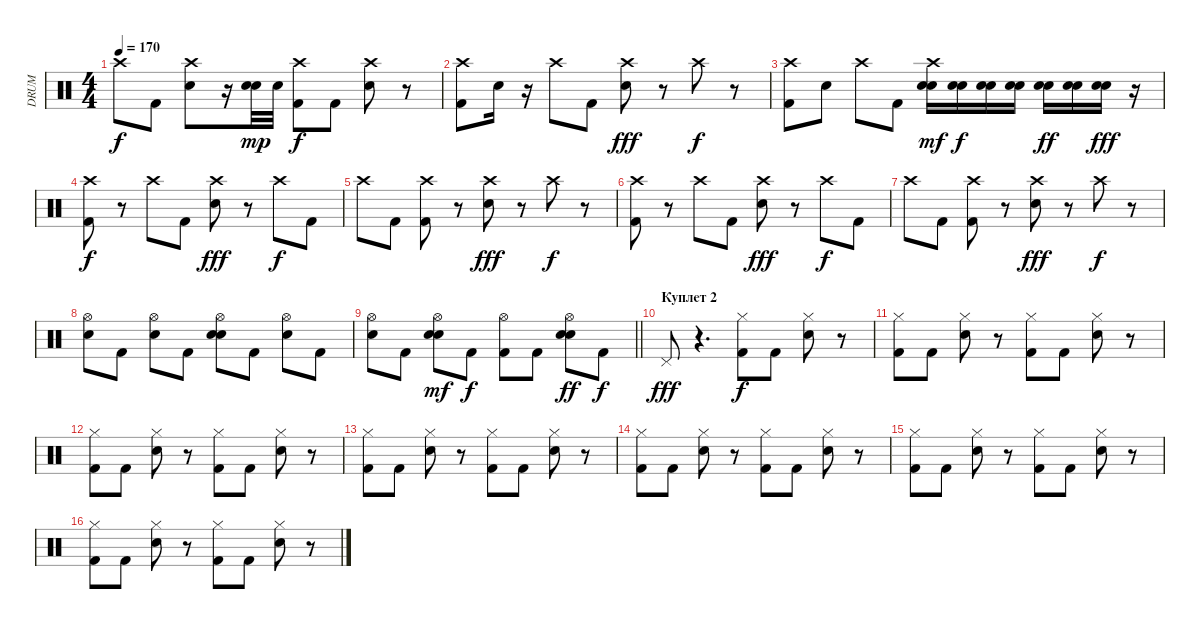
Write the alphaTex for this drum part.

\track ("DRUM" "DRUM") {instrument percussion}
\staff {score}
\articulation defaults
\ts (4 4)
\tempo 170
\clef neutral
\ks c "Crash high (hit)".8{dy f} "Kick (hit) 2".8
("Snare (hit) 2" "Crash high (hit)").8 r.16 ("Snare (hit) 2" "Snare (hit) 2").32{dy mp} "Snare (hit) 2".32 ("Kick (hit) 2" "Crash high (hit)").8{dy f} "Kick (hit) 2".8 ("Snare (hit) 2" "Crash high (hit)").8 r.8 |
("Crash high (hit)" "Kick (hit) 2").8 "Electric Snare (hit)".16 r.16 "Crash high (hit)".8 "Kick (hit) 2".8 ("Snare (hit) 2" "Crash high (hit)").8{dy fff} r.8 "Crash high (hit)".8{dy f} r.8 |
("Kick (hit) 2" "Crash high (hit)").8 "Snare (hit) 2".8 "Crash high (hit)".8 "Kick (hit) 2".8 ("Snare (hit) 2" "Electric Snare (hit)" "Crash high (hit)").16{dy mf} ("Snare (hit) 2" "Electric Snare (hit)").16{dy f} ("Snare (hit) 2" "Electric Snare (hit)").16 ("Snare (hit) 2" "Electric Snare (hit)").16 ("Snare (hit) 2" "Electric Snare (hit)").16{dy ff} ("Snare (hit) 2" "Electric Snare (hit)").16 ("Snare (hit) 2" "Electric Snare (hit)").16{dy fff} r.16 |
("Crash high (hit)" "Kick (hit) 2").8{dy f} r.8 "Crash high (hit)".8 "Kick (hit) 2".8 ("Crash high (hit)" "Snare (hit) 2").8{dy fff} r.8 "Crash high (hit)".8{dy f} "Kick (hit) 2".8 |
"Crash high (hit)".8 "Kick (hit) 2".8 ("Crash high (hit)" "Kick (hit) 2").8 r.8 ("Crash high (hit)" "Snare (hit) 2").8{dy fff} r.8 "Crash high (hit)".8{dy f} r.8 |
("Crash high (hit)" "Kick (hit) 2").8 r.8 "Crash high (hit)".8 "Kick (hit) 2".8 ("Crash high (hit)" "Snare (hit) 2").8{dy fff} r.8 "Crash high (hit)".8{dy f} "Kick (hit) 2".8 |
"Crash high (hit)".8 "Kick (hit) 2".8 ("Crash high (hit)" "Kick (hit) 2").8 r.8 ("Crash high (hit)" "Snare (hit) 2").8{dy fff} r.8 "Crash high (hit)".8{dy f} r.8 |
("Hi-Hat (open)" "Snare (hit) 2").8 "Kick (hit) 2".8 ("Snare (hit) 2" "Hi-Hat (open)").8 "Kick (hit) 2".8 ("Snare (hit) 2" "Electric Snare (hit)" "Hi-Hat (open)").8 "Kick (hit) 2".8 ("Hi-Hat (open)" "Snare (hit) 2").8 "Kick (hit) 2".8 |
\barLineRight lightlight
("Hi-Hat (open)" "Snare (hit) 2").8 "Kick (hit) 2".8 ("Electric Snare (hit)" "Hi-Hat (open)" "Snare (hit) 2").8{dy mf} "Kick (hit) 2".8{dy f} ("Kick (hit) 2" "Hi-Hat (open)").8 "Kick (hit) 2".8 ("Electric Snare (hit)" "Hi-Hat (open)" "Snare (hit) 2").8{dy ff} "Kick (hit) 2".8{dy f} |
\section ("" "Куплет 2")
"Pedal Hi-Hat (hit)".8{dy fff} r.4{d} ("Hi-Hat (closed)" "Kick (hit) 2").8{dy f} "Kick (hit) 2".8 ("Hi-Hat (closed)" "Snare (hit) 2").8 r.8 |
("Hi-Hat (closed)" "Kick (hit) 2").8 "Kick (hit) 2".8 ("Hi-Hat (closed)" "Snare (hit) 2").8 r.8 ("Hi-Hat (closed)" "Kick (hit) 2").8 "Kick (hit) 2".8 ("Hi-Hat (closed)" "Snare (hit) 2").8 r.8 |
("Kick (hit) 2" "Hi-Hat (closed)").8 "Kick (hit) 2".8 ("Snare (hit) 2" "Hi-Hat (closed)").8 r.8 ("Hi-Hat (closed)" "Kick (hit) 2").8 "Kick (hit) 2".8 ("Hi-Hat (closed)" "Snare (hit) 2").8 r.8 |
("Hi-Hat (closed)" "Kick (hit) 2").8 "Kick (hit) 2".8 ("Hi-Hat (closed)" "Snare (hit) 2").8 r.8 ("Hi-Hat (closed)" "Kick (hit) 2").8 "Kick (hit) 2".8 ("Hi-Hat (closed)" "Snare (hit) 2").8 r.8 |
("Kick (hit) 2" "Hi-Hat (closed)").8 "Kick (hit) 2".8 ("Snare (hit) 2" "Hi-Hat (closed)").8 r.8 ("Hi-Hat (closed)" "Kick (hit) 2").8 "Kick (hit) 2".8 ("Hi-Hat (closed)" "Snare (hit) 2").8 r.8 |
("Hi-Hat (closed)" "Kick (hit) 2").8 "Kick (hit) 2".8 ("Hi-Hat (closed)" "Snare (hit) 2").8 r.8 ("Hi-Hat (closed)" "Kick (hit) 2").8 "Kick (hit) 2".8 ("Hi-Hat (closed)" "Snare (hit) 2").8 r.8 |
("Kick (hit) 2" "Hi-Hat (closed)").8 "Kick (hit) 2".8 ("Snare (hit) 2" "Hi-Hat (closed)").8 r.8 ("Hi-Hat (closed)" "Kick (hit) 2").8 "Kick (hit) 2".8 ("Hi-Hat (closed)" "Snare (hit) 2").8 r.8
